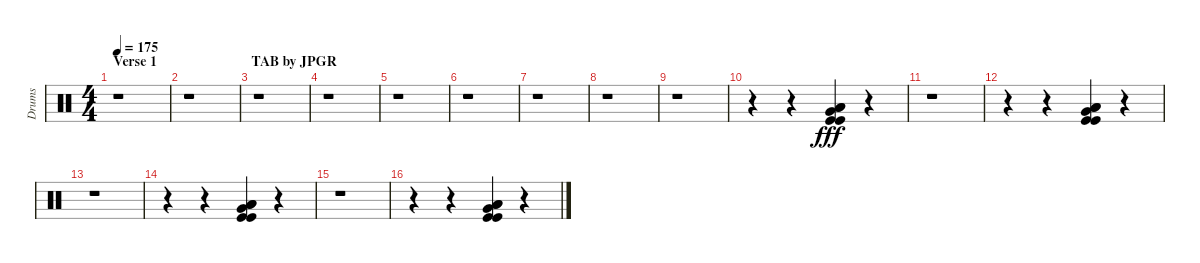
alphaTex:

\track ("Drums" "Drums") {instrument percussion}
\staff {score}
\articulation defaults
\ts (4 4)
\section ("" "Verse 1                           TAB by JPGR")
\tempo 175
\clef neutral
\ks c
r.1{dy fff} |
r.1 |
r.1 |
r.1 |
r.1 |
r.1 |
r.1 |
r.1 |
r.1 |
r.4 r.4 ("Very Low Tom (hit)" "Low Floor Tom (hit)" "Kick (hit)" "Kick (hit)" "Low Floor Tom (hit)").4{volume 14 balance 11} r.4 |
r.1 |
r.4 r.4 ("Very Low Tom (hit)" "Low Floor Tom (hit)" "Kick (hit)" "Kick (hit)" "Low Floor Tom (hit)").4{volume 14 balance 11} r.4 |
r.1 |
r.4 r.4 ("Very Low Tom (hit)" "Low Floor Tom (hit)" "Kick (hit)" "Kick (hit)" "Low Floor Tom (hit)").4{volume 14 balance 11} r.4 |
r.1 |
r.4 r.4 ("Very Low Tom (hit)" "Low Floor Tom (hit)" "Kick (hit)" "Kick (hit)" "Low Floor Tom (hit)").4{volume 14 balance 11} r.4
